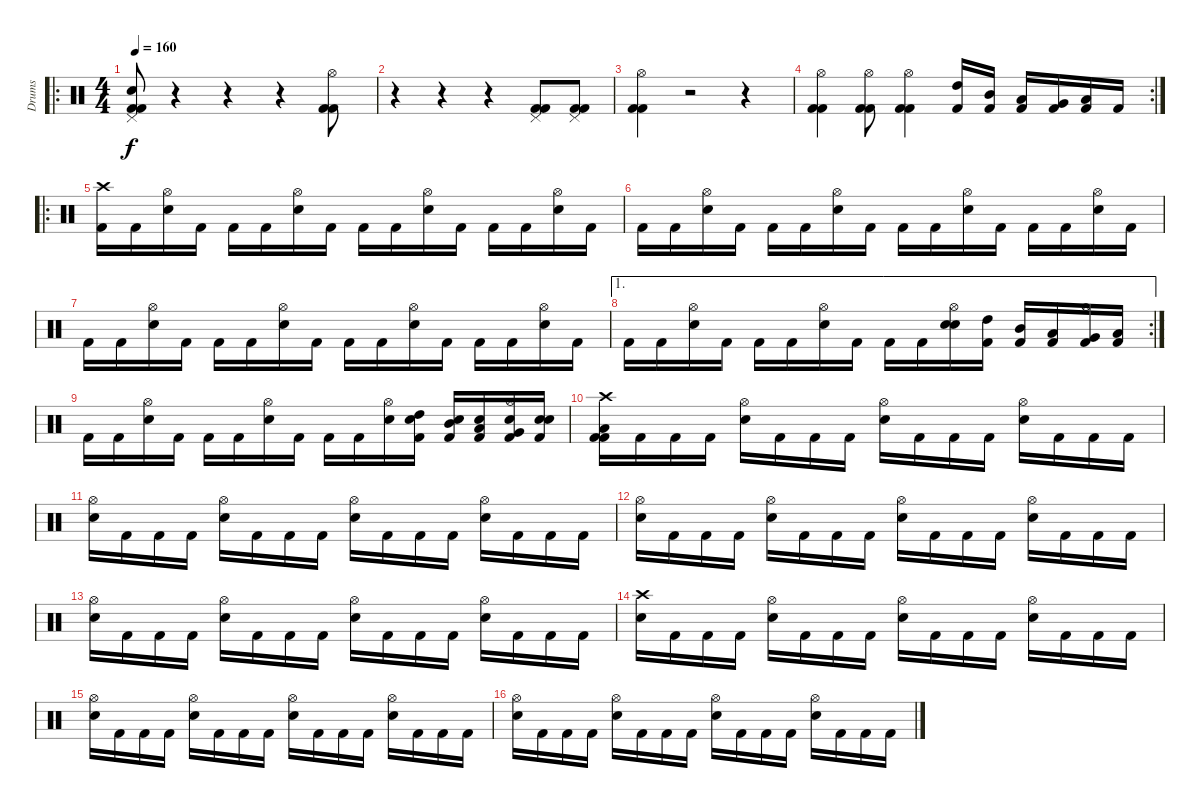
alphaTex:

\track ("Drums" "Drums") {instrument percussion}
\staff {score}
\articulation defaults
\ro
\ts (4 4)
\tempo 160
\clef neutral
\ks c
("Pedal Hi-Hat (hit)" "Electric Snare (hit)" "Kick (hit) 2" "Kick (hit) 2").8{dy f} r.4 r.4 r.4 ("Hi-Hat (open)" "Kick (hit) 2" "Kick (hit) 2").8 |
r.4 r.4 r.4 ("Pedal Hi-Hat (hit)" "Kick (hit) 2" "Kick (hit) 2").8 ("Pedal Hi-Hat (hit)" "Kick (hit) 2" "Kick (hit) 2").8 |
("Hi-Hat (open)" "Kick (hit) 2" "Kick (hit) 2").4 r.2 r.4 |
\rc 2
("Hi-Hat (open)" "Kick (hit) 2" "Kick (hit) 2").4 ("Hi-Hat (open)" "Kick (hit) 2" "Kick (hit) 2").8 ("Hi-Hat (open)" "Kick (hit) 2" "Kick (hit) 2").4 ("High Tom (hit)" "Kick (hit) 2").16 ("Mid Tom (hit)" "Kick (hit) 2").16 ("Low Tom (hit)" "Kick (hit) 2").16 ("Very Low Tom (hit)" "Kick (hit) 2").16 ("Low Floor Tom (hit)" "Kick (hit) 2").16 "Kick (hit) 2".16 |
\ro
("Crash high (hit)" "Kick (hit) 2").16 "Kick (hit) 2".16 ("Hi-Hat (open)" "Electric Snare (hit)").16 "Kick (hit) 2".16 "Kick (hit) 2".16 "Kick (hit) 2".16 ("Hi-Hat (open)" "Electric Snare (hit)").16 "Kick (hit) 2".16 "Kick (hit) 2".16 "Kick (hit) 2".16 ("Hi-Hat (open)" "Electric Snare (hit)").16 "Kick (hit) 2".16 "Kick (hit) 2".16 "Kick (hit) 2".16 ("Hi-Hat (open)" "Electric Snare (hit)").16 "Kick (hit) 2".16 |
"Kick (hit) 2".16 "Kick (hit) 2".16 ("Hi-Hat (open)" "Electric Snare (hit)").16 "Kick (hit) 2".16 "Kick (hit) 2".16 "Kick (hit) 2".16 ("Hi-Hat (open)" "Electric Snare (hit)").16 "Kick (hit) 2".16 "Kick (hit) 2".16 "Kick (hit) 2".16 ("Hi-Hat (open)" "Electric Snare (hit)").16 "Kick (hit) 2".16 "Kick (hit) 2".16 "Kick (hit) 2".16 ("Hi-Hat (open)" "Electric Snare (hit)").16 "Kick (hit) 2".16 |
"Kick (hit) 2".16 "Kick (hit) 2".16 ("Hi-Hat (open)" "Electric Snare (hit)").16 "Kick (hit) 2".16 "Kick (hit) 2".16 "Kick (hit) 2".16 ("Hi-Hat (open)" "Electric Snare (hit)").16 "Kick (hit) 2".16 "Kick (hit) 2".16 "Kick (hit) 2".16 ("Hi-Hat (open)" "Electric Snare (hit)").16 "Kick (hit) 2".16 "Kick (hit) 2".16 "Kick (hit) 2".16 ("Hi-Hat (open)" "Electric Snare (hit)").16 "Kick (hit) 2".16 |
\ae 1
\rc 2 "Kick (hit) 2".16 "Kick (hit) 2".16
("Hi-Hat (open)" "Electric Snare (hit)").16 "Kick (hit) 2".16 "Kick (hit) 2".16 "Kick (hit) 2".16 ("Hi-Hat (open)" "Electric Snare (hit)").16 "Kick (hit) 2".16 "Kick (hit) 2".16 "Kick (hit) 2".16 ("Hi-Hat (open)" "Electric Snare (hit)" "Electric Snare (hit)").16 ("High Tom (hit)" "Kick (hit) 2").16 ("Mid Tom (hit)" "Kick (hit) 2").16 ("Low Tom (hit)" "Kick (hit) 2").16 ("Hi-Hat (open)" "Very Low Tom (hit)" "Kick (hit) 2").16 ("Low Floor Tom (hit)" "Kick (hit) 2").16 |
"Kick (hit) 2".16 "Kick (hit) 2".16 ("Hi-Hat (open)" "Electric Snare (hit)").16 "Kick (hit) 2".16 "Kick (hit) 2".16 "Kick (hit) 2".16 ("Hi-Hat (open)" "Electric Snare (hit)").16 "Kick (hit) 2".16 "Kick (hit) 2".16 "Kick (hit) 2".16 ("Hi-Hat (open)" "Electric Snare (hit)").16 ("Electric Snare (hit)" "High Tom (hit)" "Kick (hit) 2").16 ("Electric Snare (hit)" "Mid Tom (hit)" "Kick (hit) 2").16 ("Electric Snare (hit)" "Low Tom (hit)" "Kick (hit) 2").16 ("Hi-Hat (open)" "Electric Snare (hit)" "Very Low Tom (hit)" "Kick (hit) 2").16 ("Electric Snare (hit)" "Snare (hit)" "Kick (hit) 2").16 |
("Crash high (hit)" "Kick (hit) 2" "Low Floor Tom (hit)" "Kick (hit) 2").16 "Kick (hit) 2".16 "Kick (hit) 2".16 "Kick (hit) 2".16 ("Hi-Hat (open)" "Electric Snare (hit)").16 "Kick (hit) 2".16 "Kick (hit) 2".16 "Kick (hit) 2".16 ("Hi-Hat (open)" "Electric Snare (hit)").16 "Kick (hit) 2".16 "Kick (hit) 2".16 "Kick (hit) 2".16 ("Hi-Hat (open)" "Electric Snare (hit)").16 "Kick (hit) 2".16 "Kick (hit) 2".16 "Kick (hit) 2".16 |
("Hi-Hat (open)" "Electric Snare (hit)").16 "Kick (hit) 2".16 "Kick (hit) 2".16 "Kick (hit) 2".16 ("Hi-Hat (open)" "Electric Snare (hit)").16 "Kick (hit) 2".16 "Kick (hit) 2".16 "Kick (hit) 2".16 ("Hi-Hat (open)" "Electric Snare (hit)").16 "Kick (hit) 2".16 "Kick (hit) 2".16 "Kick (hit) 2".16 ("Hi-Hat (open)" "Electric Snare (hit)").16 "Kick (hit) 2".16 "Kick (hit) 2".16 "Kick (hit) 2".16 |
("Hi-Hat (open)" "Electric Snare (hit)").16 "Kick (hit) 2".16 "Kick (hit) 2".16 "Kick (hit) 2".16 ("Hi-Hat (open)" "Electric Snare (hit)").16 "Kick (hit) 2".16 "Kick (hit) 2".16 "Kick (hit) 2".16 ("Hi-Hat (open)" "Electric Snare (hit)").16 "Kick (hit) 2".16 "Kick (hit) 2".16 "Kick (hit) 2".16 ("Hi-Hat (open)" "Electric Snare (hit)").16 "Kick (hit) 2".16 "Kick (hit) 2".16 "Kick (hit) 2".16 |
("Hi-Hat (open)" "Electric Snare (hit)").16 "Kick (hit) 2".16 "Kick (hit) 2".16 "Kick (hit) 2".16 ("Hi-Hat (open)" "Electric Snare (hit)").16 "Kick (hit) 2".16 "Kick (hit) 2".16 "Kick (hit) 2".16 ("Hi-Hat (open)" "Electric Snare (hit)").16 "Kick (hit) 2".16 "Kick (hit) 2".16 "Kick (hit) 2".16 ("Hi-Hat (open)" "Electric Snare (hit)").16 "Kick (hit) 2".16 "Kick (hit) 2".16 "Kick (hit) 2".16 |
("Crash high (hit)" "Electric Snare (hit)").16 "Kick (hit) 2".16 "Kick (hit) 2".16 "Kick (hit) 2".16 ("Hi-Hat (open)" "Electric Snare (hit)").16 "Kick (hit) 2".16 "Kick (hit) 2".16 "Kick (hit) 2".16 ("Hi-Hat (open)" "Electric Snare (hit)").16 "Kick (hit) 2".16 "Kick (hit) 2".16 "Kick (hit) 2".16 ("Hi-Hat (open)" "Electric Snare (hit)").16 "Kick (hit) 2".16 "Kick (hit) 2".16 "Kick (hit) 2".16 |
("Hi-Hat (open)" "Electric Snare (hit)").16 "Kick (hit) 2".16 "Kick (hit) 2".16 "Kick (hit) 2".16 ("Hi-Hat (open)" "Electric Snare (hit)").16 "Kick (hit) 2".16 "Kick (hit) 2".16 "Kick (hit) 2".16 ("Hi-Hat (open)" "Electric Snare (hit)").16 "Kick (hit) 2".16 "Kick (hit) 2".16 "Kick (hit) 2".16 ("Hi-Hat (open)" "Electric Snare (hit)").16 "Kick (hit) 2".16 "Kick (hit) 2".16 "Kick (hit) 2".16 |
("Hi-Hat (open)" "Electric Snare (hit)").16 "Kick (hit) 2".16 "Kick (hit) 2".16 "Kick (hit) 2".16 ("Hi-Hat (open)" "Electric Snare (hit)").16 "Kick (hit) 2".16 "Kick (hit) 2".16 "Kick (hit) 2".16 ("Hi-Hat (open)" "Electric Snare (hit)").16 "Kick (hit) 2".16 "Kick (hit) 2".16 "Kick (hit) 2".16 ("Hi-Hat (open)" "Electric Snare (hit)").16 "Kick (hit) 2".16 "Kick (hit) 2".16 "Kick (hit) 2".16
